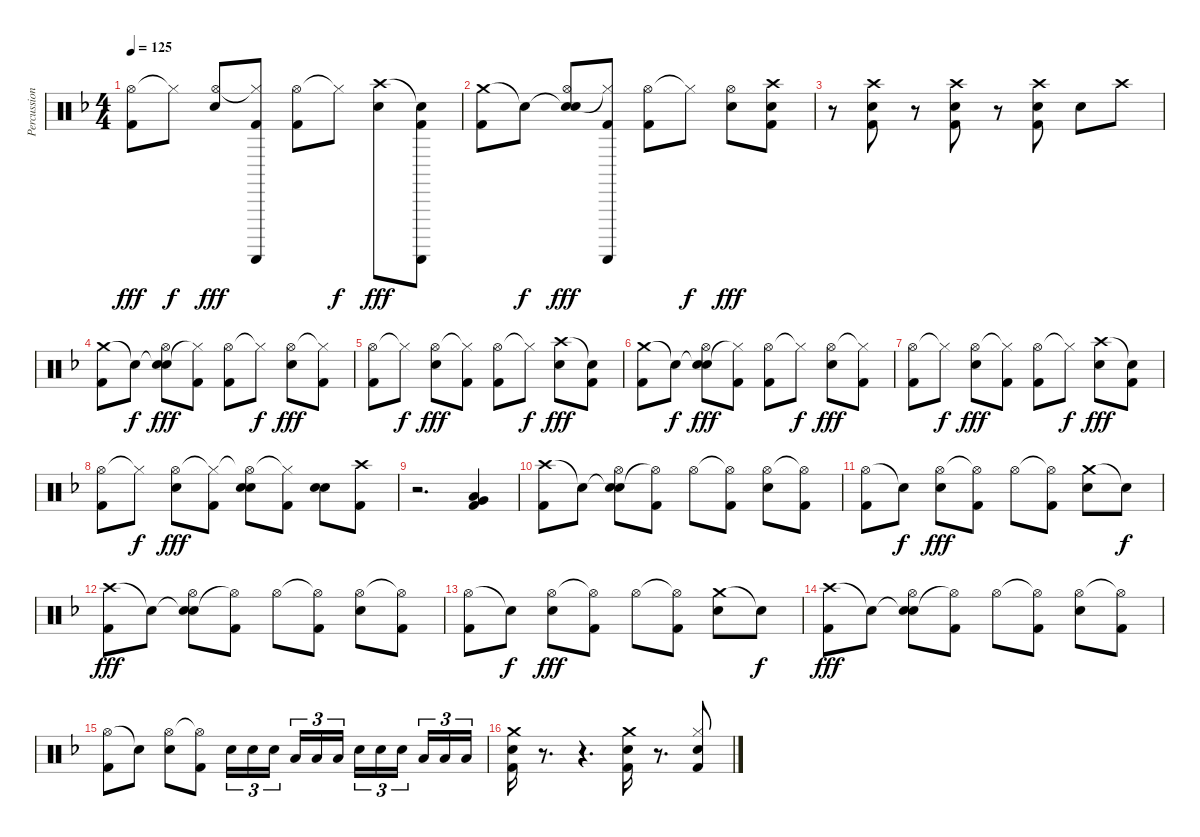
\track ("Percussion" "Percussion") {instrument percussion}
\staff {score}
\articulation defaults
\ts (4 4)
\tempo 125
\clef neutral
\ks dminor
("Hi-Hat (open)" "Kick (hit) 2").8{dy fff} "Hi-Hat (closed)"{t}.8{dy f} ("Hi-Hat (open)" "Electric Snare (hit)").8{dy fff} ("Hi-Hat (closed)"{t} "Guiro (scrap-return)" "Kick (hit) 2").8 ("Hi-Hat (open)" "Kick (hit) 2").8 "Hi-Hat (closed)"{t}.8{dy f} ("Crash high (hit)" "Electric Snare (hit)").8{dy fff} ("Snare (hit)"{t} "Guiro (scrap-return)" "Kick (hit) 2").8 |
("Crash medium (hit)" "Kick (hit) 2").8 "Snare (hit)"{t}.8{dy f} ("Snare (hit)"{t} "Hi-Hat (open)" "Electric Snare (hit)").8{dy fff} ("Hi-Hat (closed)"{t} "Guiro (scrap-return)" "Kick (hit) 2").8 ("Hi-Hat (open)" "Kick (hit) 2").8 "Hi-Hat (closed)"{t}.8{dy f} ("Hi-Hat (open)" "Electric Snare (hit)").8{dy fff} ("Crash high (hit)" "Electric Snare (hit)" "Kick (hit) 2").8 |
r.8{volume 0} ("Crash high (hit)" "Electric Snare (hit)" "Kick (hit) 2").8{volume 16} r.8{volume 0} ("Crash high (hit)" "Electric Snare (hit)" "Kick (hit) 2").8{volume 16} r.8{volume 0} ("Crash high (hit)" "Electric Snare (hit)" "Kick (hit) 2").8{volume 16} "Electric Snare (hit)".8 "Crash high (hit)".8 |
("Crash medium (hit)" "Kick (hit) 2").8 "Snare (hit)"{t}.8{dy f} ("Snare (hit)"{t} "Hi-Hat (open)" "Electric Snare (hit)").8{dy fff} ("Hi-Hat (closed)"{t} "Kick (hit) 2").8 ("Hi-Hat (open)" "Kick (hit) 2").8 "Hi-Hat (closed)"{t}.8{dy f} ("Hi-Hat (open)" "Electric Snare (hit)").8{dy fff} ("Hi-Hat (closed)"{t} "Kick (hit) 2").8 |
("Hi-Hat (open)" "Kick (hit) 2").8 "Hi-Hat (closed)"{t}.8{dy f} ("Hi-Hat (open)" "Electric Snare (hit)").8{dy fff} ("Hi-Hat (closed)"{t} "Kick (hit) 2").8 ("Hi-Hat (open)" "Kick (hit) 2").8 "Hi-Hat (closed)"{t}.8{dy f} ("Crash high (hit)" "Electric Snare (hit)").8{dy fff} ("Snare (hit)"{t} "Kick (hit) 2").8 |
("Crash medium (hit)" "Kick (hit) 2").8 "Snare (hit)"{t}.8{dy f} ("Snare (hit)"{t} "Hi-Hat (open)" "Electric Snare (hit)").8{dy fff} ("Hi-Hat (closed)"{t} "Kick (hit) 2").8 ("Hi-Hat (open)" "Kick (hit) 2").8 "Hi-Hat (closed)"{t}.8{dy f} ("Hi-Hat (open)" "Electric Snare (hit)").8{dy fff} ("Hi-Hat (closed)"{t} "Kick (hit) 2").8 |
("Hi-Hat (open)" "Kick (hit) 2").8 "Hi-Hat (closed)"{t}.8{dy f} ("Hi-Hat (open)" "Electric Snare (hit)").8{dy fff} ("Hi-Hat (closed)"{t} "Kick (hit) 2").8 ("Hi-Hat (open)" "Kick (hit) 2").8 "Hi-Hat (closed)"{t}.8{dy f} ("Crash high (hit)" "Electric Snare (hit)").8{dy fff} ("Snare (hit)"{t} "Kick (hit) 2").8 |
("Hi-Hat (open)" "Kick (hit) 2").8 "Hi-Hat (closed)"{t}.8{dy f} ("Hi-Hat (open)" "Electric Snare (hit)").8{dy fff} ("Hi-Hat (closed)"{t} "Kick (hit) 2").8 ("Hi-Hat (open)"{t} "Electric Snare (hit)" "Electric Snare (hit)").8 ("Hi-Hat (closed)"{t} "Kick (hit) 2").8 ("Electric Snare (hit)" "Electric Snare (hit)").8 ("Crash high (hit)" "Kick (hit) 2").8 |
r.2{d volume 0} ("Very Low Tom (hit)" "Low Floor Tom (hit)" "Kick (hit) 2").4{volume 16} |
("Crash high (hit)" "Kick (hit) 2").8 "Snare (hit)"{t}.8 ("Snare (hit)"{t} "Hi-Hat (open)" "Electric Snare (hit)").8 ("Hi-Hat (open)"{t} "Kick (hit) 2").8 "Hi-Hat (open)".8 ("Hi-Hat (open)"{t} "Kick (hit) 2").8 ("Hi-Hat (open)" "Electric Snare (hit)").8 ("Hi-Hat (open)"{t} "Kick (hit) 2").8 |
("Hi-Hat (open)" "Kick (hit) 2").8 "Snare (hit)"{t}.8{dy f} ("Hi-Hat (open)" "Electric Snare (hit)").8{dy fff} ("Hi-Hat (open)"{t} "Kick (hit) 2").8 "Hi-Hat (open)".8 ("Hi-Hat (open)"{t} "Kick (hit) 2").8 ("Crash medium (hit)" "Electric Snare (hit)").8 "Snare (hit)"{t}.8{dy f} |
("Crash high (hit)" "Kick (hit) 2").8{dy fff} "Snare (hit)"{t}.8 ("Snare (hit)"{t} "Hi-Hat (open)" "Electric Snare (hit)").8 ("Hi-Hat (open)"{t} "Kick (hit) 2").8 "Hi-Hat (open)".8 ("Hi-Hat (open)"{t} "Kick (hit) 2").8 ("Hi-Hat (open)" "Electric Snare (hit)").8 ("Hi-Hat (open)"{t} "Kick (hit) 2").8 |
("Hi-Hat (open)" "Kick (hit) 2").8 "Snare (hit)"{t}.8{dy f} ("Hi-Hat (open)" "Electric Snare (hit)").8{dy fff} ("Hi-Hat (open)"{t} "Kick (hit) 2").8 "Hi-Hat (open)".8 ("Hi-Hat (open)"{t} "Kick (hit) 2").8 ("Crash medium (hit)" "Electric Snare (hit)").8 "Snare (hit)"{t}.8{dy f} |
("Crash high (hit)" "Kick (hit) 2").8{dy fff} "Snare (hit)"{t}.8 ("Snare (hit)"{t} "Hi-Hat (open)" "Electric Snare (hit)").8 ("Hi-Hat (open)"{t} "Kick (hit) 2").8 "Hi-Hat (open)".8 ("Hi-Hat (open)"{t} "Kick (hit) 2").8 ("Hi-Hat (open)" "Electric Snare (hit)").8 ("Hi-Hat (open)"{t} "Kick (hit) 2").8 |
("Hi-Hat (open)" "Kick (hit) 2").8 "Snare (hit)"{t}.8 ("Hi-Hat (open)" "Electric Snare (hit)").8 ("Hi-Hat (open)"{t} "Kick (hit) 2").8 "Electric Snare (hit)".16{tu (3 2)} "Electric Snare (hit)".16{tu (3 2)} "Electric Snare (hit)".16{tu (3 2) beam splitsecondary} "Low Tom (hit)".16{tu (3 2)} "Low Tom (hit)".16{tu (3 2)} "Low Tom (hit)".16{tu (3 2)} "Electric Snare (hit)".16{tu (3 2)} "Electric Snare (hit)".16{tu (3 2)} "Electric Snare (hit)".16{tu (3 2) beam splitsecondary} "Low Floor Tom (hit)".16{tu (3 2)} "Low Floor Tom (hit)".16{tu (3 2)} "Low Floor Tom (hit)".16{tu (3 2)} |
("Crash medium (hit)" "Electric Snare (hit)" "Kick (hit) 2").16 r.8{d volume 0} r.4{d} ("Crash medium (hit)" "Electric Snare (hit)" "Kick (hit) 2").16{volume 16} r.8{d volume 0} ("Hi-Hat (closed)" "Electric Snare (hit)" "Kick (hit) 2").8{volume 16}
